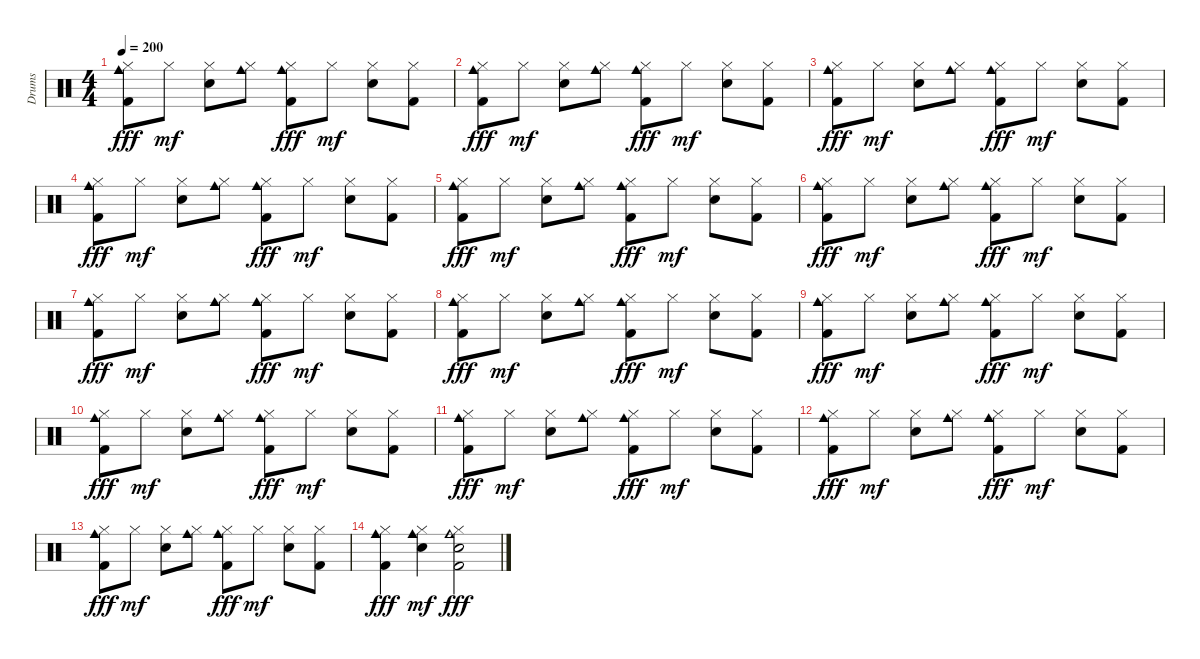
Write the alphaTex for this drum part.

\track ("Drums" "Drums") {instrument percussion}
\staff {score}
\articulation defaults
\ts (4 4)
\tempo 200
\clef neutral
\ks c
("Cowbell medium (hit)" "Hi-Hat (closed)" "Kick (hit) 2").8{dy fff} "Hi-Hat (closed)".8{dy mf} ("Hi-Hat (closed)" "Electric Snare (hit)").8 ("Cowbell medium (hit)" "Hi-Hat (closed)").8 ("Cowbell medium (hit)" "Hi-Hat (closed)" "Kick (hit) 2").8{dy fff} "Hi-Hat (closed)".8{dy mf} ("Hi-Hat (closed)" "Electric Snare (hit)").8 ("Hi-Hat (closed)" "Kick (hit) 2").8 |
("Cowbell medium (hit)" "Hi-Hat (closed)" "Kick (hit) 2").8{dy fff} "Hi-Hat (closed)".8{dy mf} ("Hi-Hat (closed)" "Electric Snare (hit)").8 ("Cowbell medium (hit)" "Hi-Hat (closed)").8 ("Cowbell medium (hit)" "Hi-Hat (closed)" "Kick (hit) 2").8{dy fff} "Hi-Hat (closed)".8{dy mf} ("Hi-Hat (closed)" "Electric Snare (hit)").8 ("Hi-Hat (closed)" "Kick (hit) 2").8 |
("Cowbell medium (hit)" "Hi-Hat (closed)" "Kick (hit) 2").8{dy fff} "Hi-Hat (closed)".8{dy mf} ("Hi-Hat (closed)" "Electric Snare (hit)").8 ("Cowbell medium (hit)" "Hi-Hat (closed)").8 ("Cowbell medium (hit)" "Hi-Hat (closed)" "Kick (hit) 2").8{dy fff} "Hi-Hat (closed)".8{dy mf} ("Hi-Hat (closed)" "Electric Snare (hit)").8 ("Hi-Hat (closed)" "Kick (hit) 2").8 |
("Cowbell medium (hit)" "Hi-Hat (closed)" "Kick (hit) 2").8{dy fff} "Hi-Hat (closed)".8{dy mf} ("Hi-Hat (closed)" "Electric Snare (hit)").8 ("Cowbell medium (hit)" "Hi-Hat (closed)").8 ("Cowbell medium (hit)" "Hi-Hat (closed)" "Kick (hit) 2").8{dy fff} "Hi-Hat (closed)".8{dy mf} ("Hi-Hat (closed)" "Electric Snare (hit)").8 ("Hi-Hat (closed)" "Kick (hit) 2").8 |
("Cowbell medium (hit)" "Hi-Hat (closed)" "Kick (hit) 2").8{dy fff} "Hi-Hat (closed)".8{dy mf} ("Hi-Hat (closed)" "Electric Snare (hit)").8 ("Cowbell medium (hit)" "Hi-Hat (closed)").8 ("Cowbell medium (hit)" "Hi-Hat (closed)" "Kick (hit) 2").8{dy fff} "Hi-Hat (closed)".8{dy mf} ("Hi-Hat (closed)" "Electric Snare (hit)").8 ("Hi-Hat (closed)" "Kick (hit) 2").8 |
("Cowbell medium (hit)" "Hi-Hat (closed)" "Kick (hit) 2").8{dy fff} "Hi-Hat (closed)".8{dy mf} ("Hi-Hat (closed)" "Electric Snare (hit)").8 ("Cowbell medium (hit)" "Hi-Hat (closed)").8 ("Cowbell medium (hit)" "Hi-Hat (closed)" "Kick (hit) 2").8{dy fff} "Hi-Hat (closed)".8{dy mf} ("Hi-Hat (closed)" "Electric Snare (hit)").8 ("Hi-Hat (closed)" "Kick (hit) 2").8 |
("Cowbell medium (hit)" "Hi-Hat (closed)" "Kick (hit) 2").8{dy fff} "Hi-Hat (closed)".8{dy mf} ("Hi-Hat (closed)" "Electric Snare (hit)").8 ("Cowbell medium (hit)" "Hi-Hat (closed)").8 ("Cowbell medium (hit)" "Hi-Hat (closed)" "Kick (hit) 2").8{dy fff} "Hi-Hat (closed)".8{dy mf} ("Hi-Hat (closed)" "Electric Snare (hit)").8 ("Hi-Hat (closed)" "Kick (hit) 2").8 |
("Cowbell medium (hit)" "Hi-Hat (closed)" "Kick (hit) 2").8{dy fff} "Hi-Hat (closed)".8{dy mf} ("Hi-Hat (closed)" "Electric Snare (hit)").8 ("Cowbell medium (hit)" "Hi-Hat (closed)").8 ("Cowbell medium (hit)" "Hi-Hat (closed)" "Kick (hit) 2").8{dy fff} "Hi-Hat (closed)".8{dy mf} ("Hi-Hat (closed)" "Electric Snare (hit)").8 ("Hi-Hat (closed)" "Kick (hit) 2").8 |
("Cowbell medium (hit)" "Hi-Hat (closed)" "Kick (hit) 2").8{dy fff} "Hi-Hat (closed)".8{dy mf} ("Hi-Hat (closed)" "Electric Snare (hit)").8 ("Cowbell medium (hit)" "Hi-Hat (closed)").8 ("Cowbell medium (hit)" "Hi-Hat (closed)" "Kick (hit) 2").8{dy fff} "Hi-Hat (closed)".8{dy mf} ("Hi-Hat (closed)" "Electric Snare (hit)").8 ("Hi-Hat (closed)" "Kick (hit) 2").8 |
("Cowbell medium (hit)" "Hi-Hat (closed)" "Kick (hit) 2").8{dy fff} "Hi-Hat (closed)".8{dy mf} ("Hi-Hat (closed)" "Electric Snare (hit)").8 ("Cowbell medium (hit)" "Hi-Hat (closed)").8 ("Cowbell medium (hit)" "Hi-Hat (closed)" "Kick (hit) 2").8{dy fff} "Hi-Hat (closed)".8{dy mf} ("Hi-Hat (closed)" "Electric Snare (hit)").8 ("Hi-Hat (closed)" "Kick (hit) 2").8 |
("Cowbell medium (hit)" "Hi-Hat (closed)" "Kick (hit) 2").8{dy fff} "Hi-Hat (closed)".8{dy mf} ("Hi-Hat (closed)" "Electric Snare (hit)").8 ("Cowbell medium (hit)" "Hi-Hat (closed)").8 ("Cowbell medium (hit)" "Hi-Hat (closed)" "Kick (hit) 2").8{dy fff} "Hi-Hat (closed)".8{dy mf} ("Hi-Hat (closed)" "Electric Snare (hit)").8 ("Hi-Hat (closed)" "Kick (hit) 2").8 |
("Cowbell medium (hit)" "Hi-Hat (closed)" "Kick (hit) 2").8{dy fff} "Hi-Hat (closed)".8{dy mf} ("Hi-Hat (closed)" "Electric Snare (hit)").8 ("Cowbell medium (hit)" "Hi-Hat (closed)").8 ("Cowbell medium (hit)" "Hi-Hat (closed)" "Kick (hit) 2").8{dy fff} "Hi-Hat (closed)".8{dy mf} ("Hi-Hat (closed)" "Electric Snare (hit)").8 ("Hi-Hat (closed)" "Kick (hit) 2").8 |
("Cowbell medium (hit)" "Hi-Hat (closed)" "Kick (hit) 2").8{dy fff} "Hi-Hat (closed)".8{dy mf} ("Hi-Hat (closed)" "Electric Snare (hit)").8 ("Cowbell medium (hit)" "Hi-Hat (closed)").8 ("Cowbell medium (hit)" "Hi-Hat (closed)" "Kick (hit) 2").8{dy fff} "Hi-Hat (closed)".8{dy mf} ("Hi-Hat (closed)" "Electric Snare (hit)").8 ("Hi-Hat (closed)" "Kick (hit) 2").8 |
("Cowbell medium (hit)" "Hi-Hat (closed)" "Kick (hit) 2").4{dy fff} ("Cowbell medium (hit)" "Hi-Hat (closed)" "Electric Snare (hit)").4{dy mf} ("Cowbell medium (hit)" "Hi-Hat (closed)" "Electric Snare (hit)" "Kick (hit) 2").2{dy fff}
